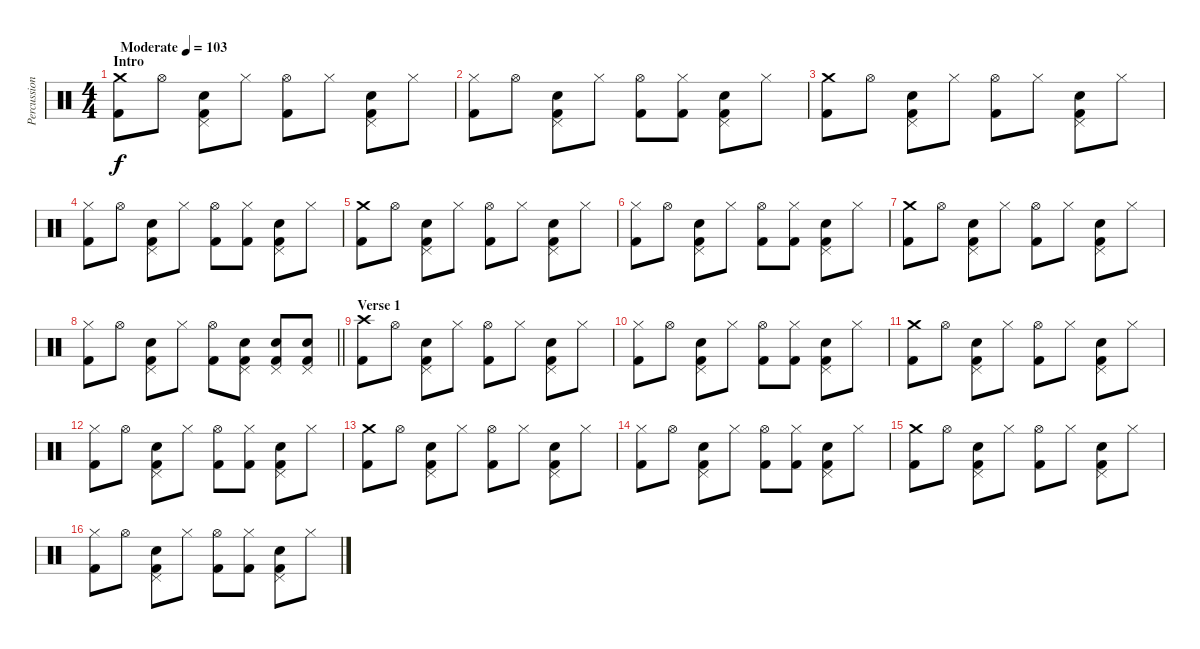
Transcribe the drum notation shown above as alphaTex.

\track ("Percussion: Denny Carmassi" "Percussion") {instrument percussion}
\staff {score}
\articulation defaults
\ts (4 4)
\section ("" "Intro")
\tempo (103 "Moderate")
\clef neutral
\ks c
("Crash medium (hit)" "Kick (hit) 2").8{dy f} "Hi-Hat (open)".8 ("Pedal Hi-Hat (hit)" "Snare (hit) 2" "Kick (hit) 2").8 "Hi-Hat (closed)".8 ("Hi-Hat (open)" "Kick (hit) 2").8 "Hi-Hat (closed)".8 ("Pedal Hi-Hat (hit)" "Snare (hit) 2" "Kick (hit) 2").8 "Hi-Hat (closed)".8 |
("Hi-Hat (closed)" "Kick (hit) 2").8 "Hi-Hat (open)".8 ("Pedal Hi-Hat (hit)" "Snare (hit) 2" "Kick (hit) 2").8 "Hi-Hat (closed)".8 ("Hi-Hat (open)" "Kick (hit) 2").8 ("Hi-Hat (closed)" "Kick (hit) 2").8 ("Pedal Hi-Hat (hit)" "Snare (hit) 2" "Kick (hit) 2").8 "Hi-Hat (closed)".8 |
("Crash medium (hit)" "Kick (hit) 2").8 "Hi-Hat (open)".8 ("Pedal Hi-Hat (hit)" "Snare (hit) 2" "Kick (hit) 2").8 "Hi-Hat (closed)".8 ("Hi-Hat (open)" "Kick (hit) 2").8 "Hi-Hat (closed)".8 ("Pedal Hi-Hat (hit)" "Snare (hit) 2" "Kick (hit) 2").8 "Hi-Hat (closed)".8 |
("Hi-Hat (closed)" "Kick (hit) 2").8 "Hi-Hat (open)".8 ("Pedal Hi-Hat (hit)" "Snare (hit) 2" "Kick (hit) 2").8 "Hi-Hat (closed)".8 ("Hi-Hat (open)" "Kick (hit) 2").8 ("Hi-Hat (closed)" "Kick (hit) 2").8 ("Pedal Hi-Hat (hit)" "Snare (hit) 2" "Kick (hit) 2").8 "Hi-Hat (closed)".8 |
("Crash medium (hit)" "Kick (hit) 2").8 "Hi-Hat (open)".8 ("Pedal Hi-Hat (hit)" "Snare (hit) 2" "Kick (hit) 2").8 "Hi-Hat (closed)".8 ("Hi-Hat (open)" "Kick (hit) 2").8 "Hi-Hat (closed)".8 ("Pedal Hi-Hat (hit)" "Snare (hit) 2" "Kick (hit) 2").8 "Hi-Hat (closed)".8 |
("Hi-Hat (closed)" "Kick (hit) 2").8 "Hi-Hat (open)".8 ("Pedal Hi-Hat (hit)" "Snare (hit) 2" "Kick (hit) 2").8 "Hi-Hat (closed)".8 ("Hi-Hat (open)" "Kick (hit) 2").8 ("Hi-Hat (closed)" "Kick (hit) 2").8 ("Pedal Hi-Hat (hit)" "Snare (hit) 2" "Kick (hit) 2").8 "Hi-Hat (closed)".8 |
("Crash medium (hit)" "Kick (hit) 2").8 "Hi-Hat (open)".8 ("Pedal Hi-Hat (hit)" "Snare (hit) 2" "Kick (hit) 2").8 "Hi-Hat (closed)".8 ("Hi-Hat (open)" "Kick (hit) 2").8 "Hi-Hat (closed)".8 ("Pedal Hi-Hat (hit)" "Snare (hit) 2" "Kick (hit) 2").8 "Hi-Hat (closed)".8 |
\barLineRight lightlight
("Hi-Hat (closed)" "Kick (hit) 2").8 "Hi-Hat (open)".8 ("Pedal Hi-Hat (hit)" "Snare (hit) 2" "Kick (hit) 2").8 "Hi-Hat (closed)".8 ("Hi-Hat (open)" "Kick (hit) 2").8 ("Pedal Hi-Hat (hit)" "Snare (hit) 2" "Kick (hit) 2").8 ("Pedal Hi-Hat (hit)" "Snare (hit) 2" "Kick (hit) 2").8 ("Pedal Hi-Hat (hit)" "Snare (hit) 2" "Kick (hit) 2").8 |
\section ("" "Verse 1")
("Crash high (hit)" "Kick (hit) 2").8 "Hi-Hat (open)".8 ("Pedal Hi-Hat (hit)" "Snare (hit) 2" "Kick (hit) 2").8 "Hi-Hat (closed)".8 ("Hi-Hat (open)" "Kick (hit) 2").8 "Hi-Hat (closed)".8 ("Pedal Hi-Hat (hit)" "Snare (hit) 2" "Kick (hit) 2").8 "Hi-Hat (closed)".8 |
("Hi-Hat (closed)" "Kick (hit) 2").8 "Hi-Hat (open)".8 ("Pedal Hi-Hat (hit)" "Snare (hit) 2" "Kick (hit) 2").8 "Hi-Hat (closed)".8 ("Hi-Hat (open)" "Kick (hit) 2").8 ("Hi-Hat (closed)" "Kick (hit) 2").8 ("Pedal Hi-Hat (hit)" "Snare (hit) 2" "Kick (hit) 2").8 "Hi-Hat (closed)".8 |
("Crash medium (hit)" "Kick (hit) 2").8 "Hi-Hat (open)".8 ("Pedal Hi-Hat (hit)" "Snare (hit) 2" "Kick (hit) 2").8 "Hi-Hat (closed)".8 ("Hi-Hat (open)" "Kick (hit) 2").8 "Hi-Hat (closed)".8 ("Pedal Hi-Hat (hit)" "Snare (hit) 2" "Kick (hit) 2").8 "Hi-Hat (closed)".8 |
("Hi-Hat (closed)" "Kick (hit) 2").8 "Hi-Hat (open)".8 ("Pedal Hi-Hat (hit)" "Snare (hit) 2" "Kick (hit) 2").8 "Hi-Hat (closed)".8 ("Hi-Hat (open)" "Kick (hit) 2").8 ("Hi-Hat (closed)" "Kick (hit) 2").8 ("Pedal Hi-Hat (hit)" "Snare (hit) 2" "Kick (hit) 2").8 "Hi-Hat (closed)".8 |
("Crash medium (hit)" "Kick (hit) 2").8 "Hi-Hat (open)".8 ("Pedal Hi-Hat (hit)" "Snare (hit) 2" "Kick (hit) 2").8 "Hi-Hat (closed)".8 ("Hi-Hat (open)" "Kick (hit) 2").8 "Hi-Hat (closed)".8 ("Pedal Hi-Hat (hit)" "Snare (hit) 2" "Kick (hit) 2").8 "Hi-Hat (closed)".8 |
("Hi-Hat (closed)" "Kick (hit) 2").8 "Hi-Hat (open)".8 ("Pedal Hi-Hat (hit)" "Snare (hit) 2" "Kick (hit) 2").8 "Hi-Hat (closed)".8 ("Hi-Hat (open)" "Kick (hit) 2").8 ("Hi-Hat (closed)" "Kick (hit) 2").8 ("Pedal Hi-Hat (hit)" "Snare (hit) 2" "Kick (hit) 2").8 "Hi-Hat (closed)".8 |
("Crash medium (hit)" "Kick (hit) 2").8 "Hi-Hat (open)".8 ("Pedal Hi-Hat (hit)" "Snare (hit) 2" "Kick (hit) 2").8 "Hi-Hat (closed)".8 ("Hi-Hat (open)" "Kick (hit) 2").8 "Hi-Hat (closed)".8 ("Pedal Hi-Hat (hit)" "Snare (hit) 2" "Kick (hit) 2").8 "Hi-Hat (closed)".8 |
("Hi-Hat (closed)" "Kick (hit) 2").8 "Hi-Hat (open)".8 ("Pedal Hi-Hat (hit)" "Snare (hit) 2" "Kick (hit) 2").8 "Hi-Hat (closed)".8 ("Hi-Hat (open)" "Kick (hit) 2").8 ("Hi-Hat (closed)" "Kick (hit) 2").8 ("Pedal Hi-Hat (hit)" "Snare (hit) 2" "Kick (hit) 2").8 "Hi-Hat (closed)".8
